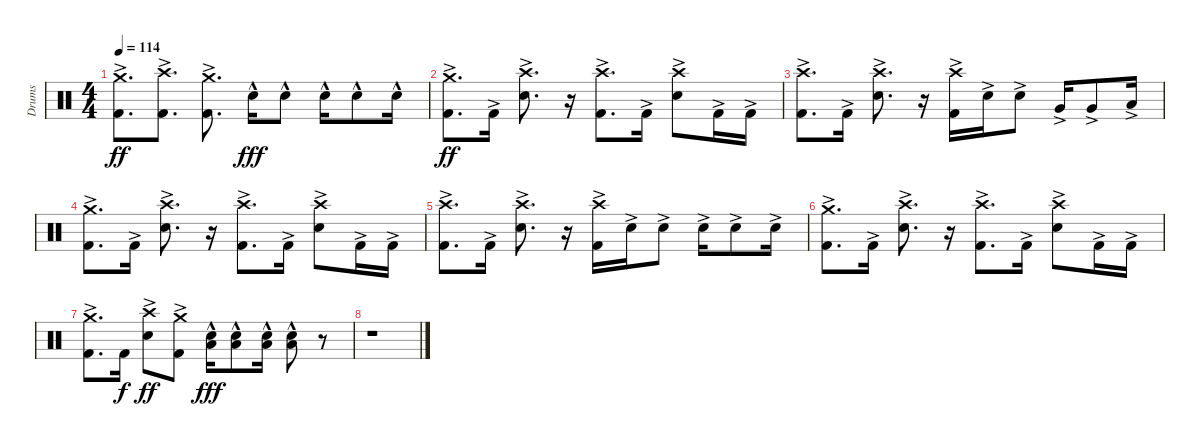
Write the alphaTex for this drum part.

\track ("Drums" "Drums") {instrument percussion}
\staff {score}
\articulation defaults
\ts (4 4)
\tempo 114
\clef neutral
\ks c
("Crash medium (hit)" "Kick (hit) 2"{ac}).8{d dy ff} ("Crash high (hit)" "Kick (hit) 2"{ac}).8{d} ("Crash medium (hit)" "Kick (hit) 2"{ac}).8{d} "Electric Snare (hit)"{hac}.16{dy fff} "Electric Snare (hit)"{hac}.8 "Electric Snare (hit)"{hac}.16 "Electric Snare (hit)"{hac}.8 "Electric Snare (hit)"{hac}.16 |
("Crash medium (hit)" "Kick (hit) 2"{ac}).8{d dy ff} "Kick (hit) 2"{ac}.16 ("Crash high (hit)" "Electric Snare (hit)"{ac}).8{d} r.16 ("Crash high (hit)" "Kick (hit) 2"{ac}).8{d} "Kick (hit) 2"{ac}.16 ("Crash high (hit)" "Electric Snare (hit)"{ac}).8 "Kick (hit) 2"{ac}.16 "Kick (hit) 2"{ac}.16 |
("Crash high (hit)" "Kick (hit) 2"{ac}).8{d} "Kick (hit) 2"{ac}.16 ("Crash high (hit)" "Electric Snare (hit)"{ac}).8{d} r.16 ("Crash high (hit)" "Kick (hit) 2"{ac}).16 "Electric Snare (hit)"{ac}.16 "Electric Snare (hit)"{ac}.8 "Very Low Tom (hit)"{ac}.16 "Very Low Tom (hit)"{ac}.8 "Low Floor Tom (hit)"{ac}.16 |
("Crash medium (hit)" "Kick (hit) 2"{ac}).8{d} "Kick (hit) 2"{ac}.16 ("Crash high (hit)" "Electric Snare (hit)"{ac}).8{d} r.16 ("Crash high (hit)" "Kick (hit) 2"{ac}).8{d} "Kick (hit) 2"{ac}.16 ("Crash high (hit)" "Electric Snare (hit)"{ac}).8 "Kick (hit) 2"{ac}.16 "Kick (hit) 2"{ac}.16 |
("Crash high (hit)" "Kick (hit) 2"{ac}).8{d} "Kick (hit) 2"{ac}.16 ("Crash high (hit)" "Electric Snare (hit)"{ac}).8{d} r.16 ("Crash high (hit)" "Kick (hit) 2"{ac}).16 "Electric Snare (hit)"{ac}.16 "Electric Snare (hit)"{ac}.8 "Electric Snare (hit)"{ac}.16 "Electric Snare (hit)"{ac}.8 "Electric Snare (hit)"{ac}.16 |
("Crash medium (hit)" "Kick (hit) 2"{ac}).8{d} "Kick (hit) 2"{ac}.16 ("Crash high (hit)" "Electric Snare (hit)"{ac}).8{d} r.16 ("Crash high (hit)" "Kick (hit) 2"{ac}).8{d} "Kick (hit) 2"{ac}.16 ("Crash high (hit)" "Electric Snare (hit)"{ac}).8 "Kick (hit) 2"{ac}.16 "Kick (hit) 2"{ac}.16 |
("Crash medium (hit)" "Kick (hit) 2"{ac}).8{d} "Kick (hit) 2".16{dy f} ("Crash high (hit)" "Electric Snare (hit)"{ac}).8{dy ff} ("Crash medium (hit)" "Kick (hit) 2"{ac}).8 ("Electric Snare (hit)"{hac} "Low Floor Tom (hit)"{hac}).16{dy fff} ("Electric Snare (hit)"{hac} "Low Floor Tom (hit)"{hac}).8 ("Electric Snare (hit)"{hac} "Low Floor Tom (hit)"{hac}).16 ("Electric Snare (hit)"{hac} "Low Floor Tom (hit)"{hac}).8 r.8 |
r.1
